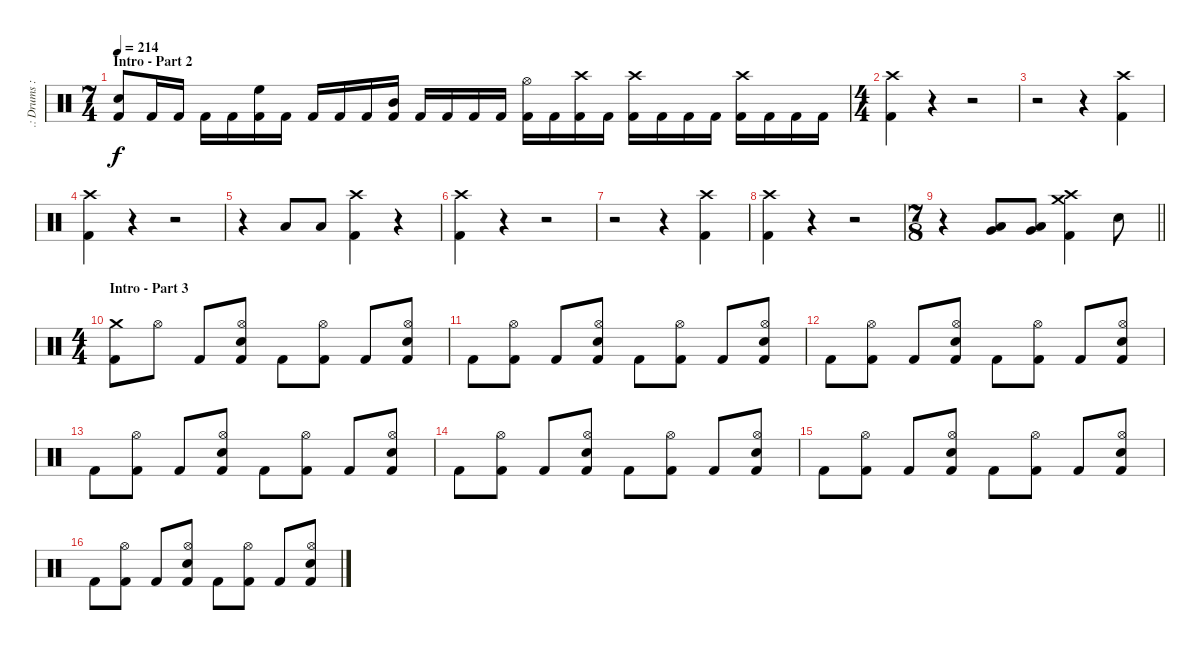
\track (".: Drums :." ".: Drums :") {instrument percussion}
\staff {score}
\articulation defaults
\ts (7 4)
\section ("" "Intro - Part 2")
\tempo 214
\clef neutral
\ks c
("Kick (hit) 2" "Snare (hit) 2").8{dy f} "Kick (hit) 2".16 "Kick (hit) 2".16 "Kick (hit) 2".16 "Kick (hit) 2".16 ("Kick (hit) 2" "High Floor Tom (hit)").16 "Kick (hit) 2".16 "Kick (hit) 2".16 "Kick (hit) 2".16 "Kick (hit) 2".16 ("Kick (hit) 2" "Mid Tom (hit)").16 "Kick (hit) 2".16 "Kick (hit) 2".16 "Kick (hit) 2".16 "Kick (hit) 2".16 ("Kick (hit) 2" "Hi-Hat (open)").16 "Kick (hit) 2".16 ("Kick (hit) 2" "Crash high (hit)").16 "Kick (hit) 2".16 ("Kick (hit) 2" "Crash high (hit)").16 "Kick (hit) 2".16 "Kick (hit) 2".16 "Kick (hit) 2".16 ("Kick (hit) 2" "Crash high (hit)").16 "Kick (hit) 2".16 "Kick (hit) 2".16 "Kick (hit) 2".16 |
\ts (4 4)
("Kick (hit) 2" "Crash high (hit)").4 r.4 r.2 |
r.2 r.4 ("Kick (hit) 2" "Crash high (hit)").4 |
("Kick (hit) 2" "Crash high (hit)").4 r.4 r.2 |
r.4 "Low Floor Tom (hit)".8 "Low Floor Tom (hit)".8 ("Kick (hit) 2" "Crash high (hit)").4 r.4 |
("Kick (hit) 2" "Crash high (hit)").4 r.4 r.2 |
r.2 r.4 ("Kick (hit) 2" "Crash high (hit)").4 |
("Kick (hit) 2" "Crash high (hit)").4 r.4 r.2 |
\ts (7 8)
\barLineRight lightlight
r.4 ("Low Floor Tom (hit)" "Very Low Tom (hit)").8 ("Low Floor Tom (hit)" "Very Low Tom (hit)").8 ("Kick (hit) 2" "Crash medium (hit)" "Crash high (hit)").4 "Electric Snare (hit)".8 |
\ts (4 4)
\section ("" "Intro - Part 3")
("Kick (hit) 2" "Crash medium (hit)").8 "Hi-Hat (open)".8 "Kick (hit) 2".8 ("Kick (hit) 2" "Electric Snare (hit)" "Hi-Hat (open)").8 "Kick (hit) 2".8 ("Kick (hit) 2" "Hi-Hat (open)").8 "Kick (hit) 2".8 ("Kick (hit) 2" "Electric Snare (hit)" "Hi-Hat (open)").8 |
"Kick (hit) 2".8 ("Kick (hit) 2" "Hi-Hat (open)").8 "Kick (hit) 2".8 ("Kick (hit) 2" "Electric Snare (hit)" "Hi-Hat (open)").8 "Kick (hit) 2".8 ("Kick (hit) 2" "Hi-Hat (open)").8 "Kick (hit) 2".8 ("Kick (hit) 2" "Electric Snare (hit)" "Hi-Hat (open)").8 |
"Kick (hit) 2".8 ("Kick (hit) 2" "Hi-Hat (open)").8 "Kick (hit) 2".8 ("Kick (hit) 2" "Electric Snare (hit)" "Hi-Hat (open)").8 "Kick (hit) 2".8 ("Kick (hit) 2" "Hi-Hat (open)").8 "Kick (hit) 2".8 ("Kick (hit) 2" "Electric Snare (hit)" "Hi-Hat (open)").8 |
"Kick (hit) 2".8 ("Kick (hit) 2" "Hi-Hat (open)").8 "Kick (hit) 2".8 ("Kick (hit) 2" "Electric Snare (hit)" "Hi-Hat (open)").8 "Kick (hit) 2".8 ("Kick (hit) 2" "Hi-Hat (open)").8 "Kick (hit) 2".8 ("Kick (hit) 2" "Electric Snare (hit)" "Hi-Hat (open)").8 |
"Kick (hit) 2".8 ("Kick (hit) 2" "Hi-Hat (open)").8 "Kick (hit) 2".8 ("Kick (hit) 2" "Electric Snare (hit)" "Hi-Hat (open)").8 "Kick (hit) 2".8 ("Kick (hit) 2" "Hi-Hat (open)").8 "Kick (hit) 2".8 ("Kick (hit) 2" "Electric Snare (hit)" "Hi-Hat (open)").8 |
"Kick (hit) 2".8 ("Kick (hit) 2" "Hi-Hat (open)").8 "Kick (hit) 2".8 ("Kick (hit) 2" "Electric Snare (hit)" "Hi-Hat (open)").8 "Kick (hit) 2".8 ("Kick (hit) 2" "Hi-Hat (open)").8 "Kick (hit) 2".8 ("Kick (hit) 2" "Electric Snare (hit)" "Hi-Hat (open)").8 |
"Kick (hit) 2".8 ("Kick (hit) 2" "Hi-Hat (open)").8 "Kick (hit) 2".8 ("Kick (hit) 2" "Electric Snare (hit)" "Hi-Hat (open)").8 "Kick (hit) 2".8 ("Kick (hit) 2" "Hi-Hat (open)").8 "Kick (hit) 2".8 ("Kick (hit) 2" "Electric Snare (hit)" "Hi-Hat (open)").8
